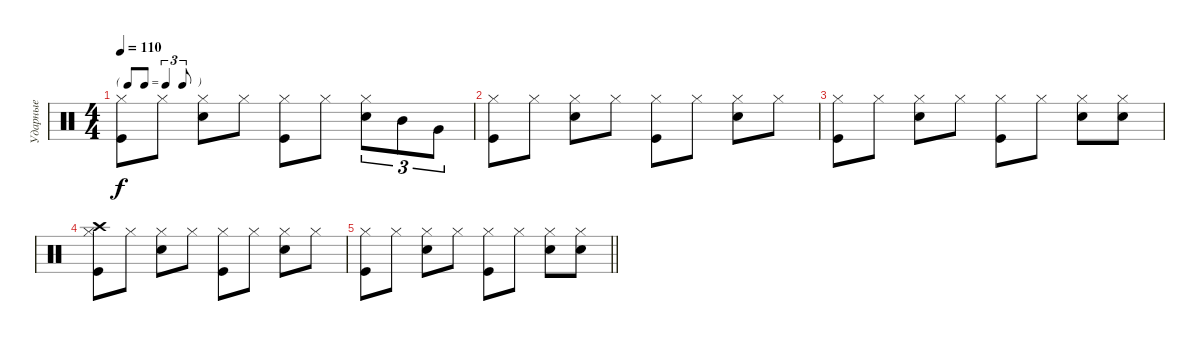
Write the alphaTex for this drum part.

\track ("Ударные" "Ударные") {instrument percussion}
\staff {score}
\articulation defaults
\ts (4 4)
\tf triplet8th
\tempo 110
\clef neutral
\ks c
("Hi-Hat (closed)" "Kick (hit)").8{dy f} "Hi-Hat (closed)".8 ("Hi-Hat (closed)" "Snare (hit) 2").8 "Hi-Hat (closed)".8 ("Hi-Hat (closed)" "Kick (hit)").8 "Hi-Hat (closed)".8 ("Hi-Hat (closed)" "Snare (hit) 2").8{tu (3 2)} "Mid Tom (hit)".8{tu (3 2)} "Very Low Tom (hit)".8{tu (3 2)} |
("Hi-Hat (closed)" "Kick (hit)").8 "Hi-Hat (closed)".8 ("Hi-Hat (closed)" "Snare (hit) 2").8 "Hi-Hat (closed)".8 ("Hi-Hat (closed)" "Kick (hit)").8 "Hi-Hat (closed)".8 ("Hi-Hat (closed)" "Snare (hit) 2").8 "Hi-Hat (closed)".8 |
("Hi-Hat (closed)" "Kick (hit)").8 "Hi-Hat (closed)".8 ("Hi-Hat (closed)" "Snare (hit) 2").8 "Hi-Hat (closed)".8 ("Hi-Hat (closed)" "Kick (hit)").8 "Hi-Hat (closed)".8 ("Hi-Hat (closed)" "Snare (hit) 2").8 ("Hi-Hat (closed)" "Snare (hit) 2").8 |
("Hi-Hat (closed)" "Kick (hit)" "Crash high (hit)").8 "Hi-Hat (closed)".8 ("Hi-Hat (closed)" "Snare (hit) 2").8 "Hi-Hat (closed)".8 ("Hi-Hat (closed)" "Kick (hit)").8 "Hi-Hat (closed)".8 ("Hi-Hat (closed)" "Snare (hit) 2").8 "Hi-Hat (closed)".8 |
\barLineRight lightlight
("Hi-Hat (closed)" "Kick (hit)").8 "Hi-Hat (closed)".8 ("Hi-Hat (closed)" "Snare (hit) 2").8 "Hi-Hat (closed)".8 ("Hi-Hat (closed)" "Kick (hit)").8 "Hi-Hat (closed)".8 ("Hi-Hat (closed)" "Snare (hit) 2").8 ("Hi-Hat (closed)" "Snare (hit) 2").8
